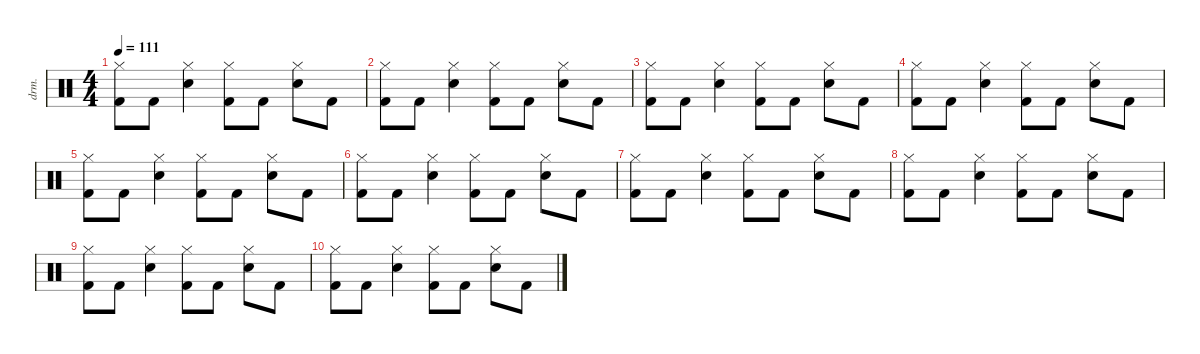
\defaultSystemsLayout 4
\hideDynamics
\bracketExtendMode nobrackets
\otherSystemsTrackNameOrientation horizontal
\track ("Drums" "drm.") {instrument percussion}
\staff {score}
\articulation defaults
\ts (4 4)
\tempo 111
\clef neutral
\ks c
("Kick (hit) 2" "Hi-Hat (closed)").8{dy f} "Kick (hit) 2".8 ("Snare (hit) 2" "Hi-Hat (closed)").4 ("Kick (hit) 2" "Hi-Hat (closed)").8 "Kick (hit) 2".8 ("Snare (hit) 2" "Hi-Hat (closed)").8 "Kick (hit) 2".8 |
("Kick (hit) 2" "Hi-Hat (closed)").8 "Kick (hit) 2".8 ("Snare (hit) 2" "Hi-Hat (closed)").4 ("Kick (hit) 2" "Hi-Hat (closed)").8 "Kick (hit) 2".8 ("Snare (hit) 2" "Hi-Hat (closed)").8 "Kick (hit) 2".8 |
("Kick (hit) 2" "Hi-Hat (closed)").8 "Kick (hit) 2".8 ("Snare (hit) 2" "Hi-Hat (closed)").4 ("Kick (hit) 2" "Hi-Hat (closed)").8 "Kick (hit) 2".8 ("Snare (hit) 2" "Hi-Hat (closed)").8 "Kick (hit) 2".8 |
("Kick (hit) 2" "Hi-Hat (closed)").8 "Kick (hit) 2".8 ("Snare (hit) 2" "Hi-Hat (closed)").4 ("Kick (hit) 2" "Hi-Hat (closed)").8 "Kick (hit) 2".8 ("Snare (hit) 2" "Hi-Hat (closed)").8 "Kick (hit) 2".8 |
("Kick (hit) 2" "Hi-Hat (closed)").8 "Kick (hit) 2".8 ("Snare (hit) 2" "Hi-Hat (closed)").4 ("Kick (hit) 2" "Hi-Hat (closed)").8 "Kick (hit) 2".8 ("Snare (hit) 2" "Hi-Hat (closed)").8 "Kick (hit) 2".8 |
("Kick (hit) 2" "Hi-Hat (closed)").8 "Kick (hit) 2".8 ("Snare (hit) 2" "Hi-Hat (closed)").4 ("Kick (hit) 2" "Hi-Hat (closed)").8 "Kick (hit) 2".8 ("Snare (hit) 2" "Hi-Hat (closed)").8 "Kick (hit) 2".8 |
("Kick (hit) 2" "Hi-Hat (closed)").8 "Kick (hit) 2".8 ("Snare (hit) 2" "Hi-Hat (closed)").4 ("Kick (hit) 2" "Hi-Hat (closed)").8 "Kick (hit) 2".8 ("Snare (hit) 2" "Hi-Hat (closed)").8 "Kick (hit) 2".8 |
("Kick (hit) 2" "Hi-Hat (closed)").8 "Kick (hit) 2".8 ("Snare (hit) 2" "Hi-Hat (closed)").4 ("Kick (hit) 2" "Hi-Hat (closed)").8 "Kick (hit) 2".8 ("Snare (hit) 2" "Hi-Hat (closed)").8 "Kick (hit) 2".8 |
("Kick (hit) 2" "Hi-Hat (closed)").8 "Kick (hit) 2".8 ("Snare (hit) 2" "Hi-Hat (closed)").4 ("Kick (hit) 2" "Hi-Hat (closed)").8 "Kick (hit) 2".8 ("Snare (hit) 2" "Hi-Hat (closed)").8 "Kick (hit) 2".8 |
("Kick (hit) 2" "Hi-Hat (closed)").8 "Kick (hit) 2".8 ("Snare (hit) 2" "Hi-Hat (closed)").4 ("Kick (hit) 2" "Hi-Hat (closed)").8 "Kick (hit) 2".8 ("Snare (hit) 2" "Hi-Hat (closed)").8 "Kick (hit) 2".8
